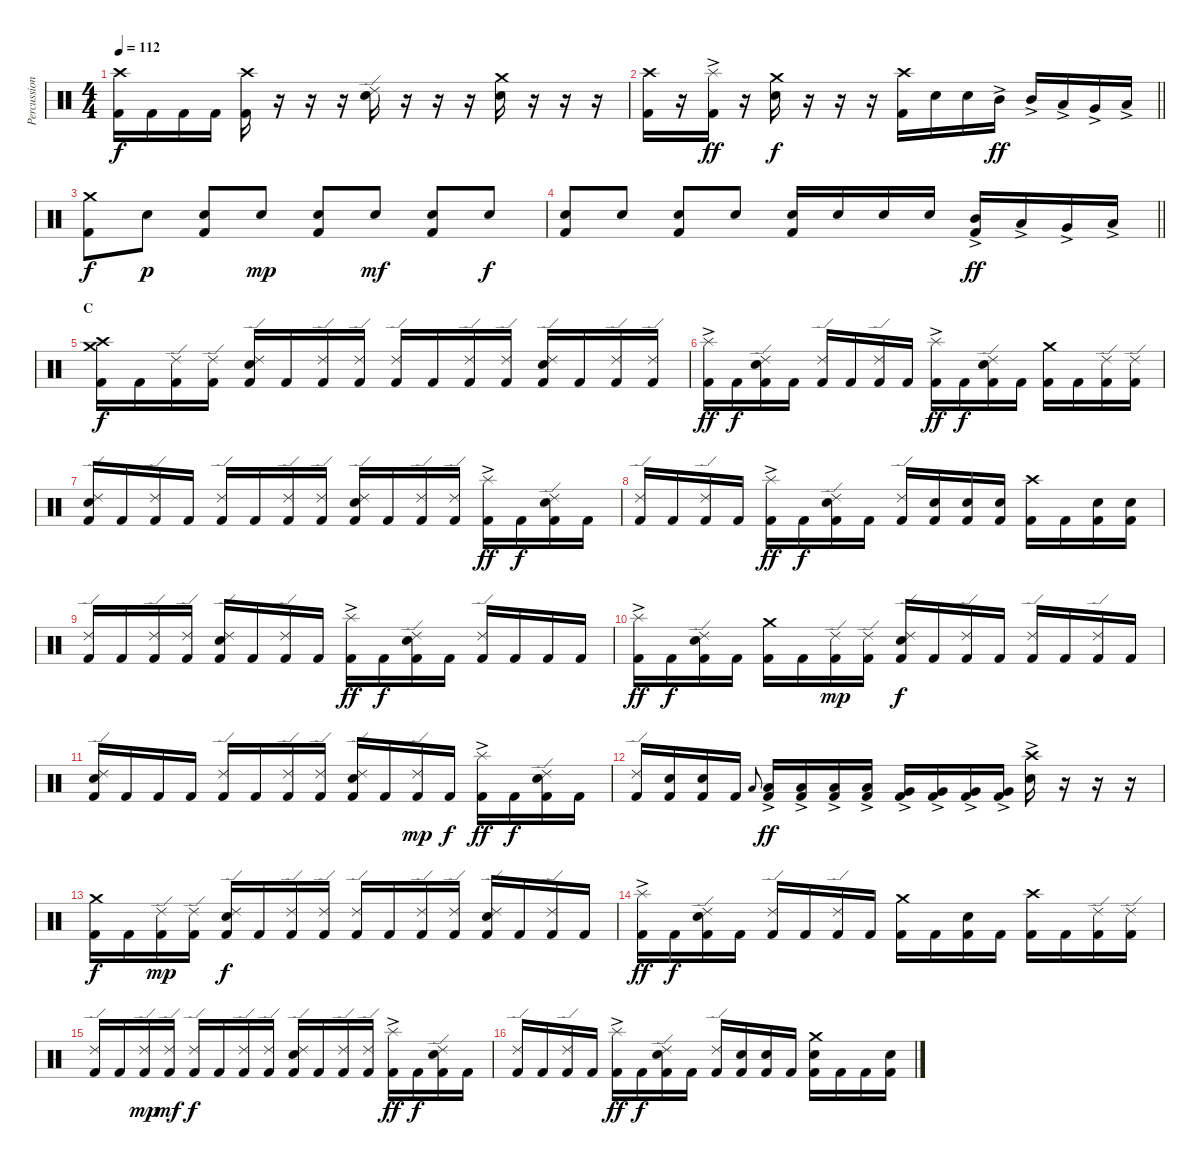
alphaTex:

\track ("Percussion" "Percussion") {instrument percussion}
\staff {score}
\articulation defaults
\ts (4 4)
\tempo 112
\clef neutral
\ks c
("Crash high (hit)" "Kick (hit) 2").16{dy f} "Kick (hit) 2".16 "Kick (hit) 2".16 "Kick (hit) 2".16 ("Crash high (hit)" "Kick (hit) 2").16 r.16 r.16 r.16 ("Ride (edge) 2" "Electric Snare (hit)").16 r.16 r.16 r.16 ("Crash medium (hit)" "Electric Snare (hit)").16 r.16 r.16 r.16 |
\barLineRight lightlight
("Crash high (hit)" "Kick (hit) 2").16 r.16 ("Splash (hit)"{ac} "Kick (hit) 2").16{dy ff} r.16 ("Crash medium (hit)" "Electric Snare (hit)").16{dy f} r.16 r.16 r.16 ("Crash high (hit)" "Kick (hit) 2").16 "Electric Snare (hit)".16 "Electric Snare (hit)".16 "Mid Tom (hit)"{ac}.16{dy ff} "Mid Tom (hit)"{ac}.16 "Low Tom (hit)"{ac}.16 "Very Low Tom (hit)"{ac}.16 "Low Floor Tom (hit)"{ac}.16 |
("Crash medium (hit)" "Kick (hit) 2").8{dy f} "Electric Snare (hit)".8{dy p} ("Electric Snare (hit)" "Kick (hit) 2").8 "Electric Snare (hit)".8{dy mp} ("Electric Snare (hit)" "Kick (hit) 2").8 "Electric Snare (hit)".8{dy mf} ("Electric Snare (hit)" "Kick (hit) 2").8 "Electric Snare (hit)".8{dy f} |
\barLineRight lightlight
("Electric Snare (hit)" "Kick (hit) 2").8 "Electric Snare (hit)".8 ("Electric Snare (hit)" "Kick (hit) 2").8 "Electric Snare (hit)".8 ("Electric Snare (hit)" "Kick (hit) 2").16 "Electric Snare (hit)".16 "Electric Snare (hit)".16 "Electric Snare (hit)".16 ("Mid Tom (hit)"{ac} "Kick (hit) 2").16{dy ff} "Low Tom (hit)"{ac}.16 "Very Low Tom (hit)"{ac}.16 "Low Floor Tom (hit)"{ac}.16 |
\section ("" "C")
("Crash medium (hit)" "Crash high (hit)" "Kick (hit) 2").16{dy f} "Kick (hit) 2".16 ("Ride (edge) 2" "Kick (hit) 2").16 ("Ride (edge) 2" "Kick (hit) 2").16 ("Ride (edge) 2" "Electric Snare (hit)" "Kick (hit) 2").16 "Kick (hit) 2".16 ("Ride (edge) 2" "Kick (hit) 2").16 ("Ride (edge) 2" "Kick (hit) 2").16 ("Ride (edge) 2" "Kick (hit) 2").16 "Kick (hit) 2".16 ("Ride (edge) 2" "Kick (hit) 2").16 ("Ride (edge) 2" "Kick (hit) 2").16 ("Ride (edge) 2" "Electric Snare (hit)" "Kick (hit) 2").16 "Kick (hit) 2".16 ("Ride (edge) 2" "Kick (hit) 2").16 ("Ride (edge) 2" "Kick (hit) 2").16 |
("Splash (hit)"{ac} "Kick (hit) 2").16{dy ff} "Kick (hit) 2".16{dy f} ("Ride (edge) 2" "Electric Snare (hit)" "Kick (hit) 2").16 "Kick (hit) 2".16 ("Ride (edge) 2" "Kick (hit) 2").16 "Kick (hit) 2".16 ("Ride (edge) 2" "Kick (hit) 2").16 "Kick (hit) 2".16 ("Splash (hit)"{ac} "Kick (hit) 2").16{dy ff} "Kick (hit) 2".16{dy f} ("Ride (edge) 2" "Electric Snare (hit)" "Kick (hit) 2").16 "Kick (hit) 2".16 ("Crash medium (hit)" "Kick (hit) 2").16 "Kick (hit) 2".16 ("Ride (edge) 2" "Kick (hit) 2").16 ("Ride (edge) 2" "Kick (hit) 2").16 |
("Ride (edge) 2" "Electric Snare (hit)" "Kick (hit) 2").16 "Kick (hit) 2".16 ("Ride (edge) 2" "Kick (hit) 2").16 "Kick (hit) 2".16 ("Ride (edge) 2" "Kick (hit) 2").16 "Kick (hit) 2".16 ("Ride (edge) 2" "Kick (hit) 2").16 ("Ride (edge) 2" "Kick (hit) 2").16 ("Ride (edge) 2" "Electric Snare (hit)" "Kick (hit) 2").16 "Kick (hit) 2".16 ("Ride (edge) 2" "Kick (hit) 2").16 ("Ride (edge) 2" "Kick (hit) 2").16 ("Splash (hit)"{ac} "Kick (hit) 2").16{dy ff} "Kick (hit) 2".16{dy f} ("Ride (edge) 2" "Electric Snare (hit)" "Kick (hit) 2").16 "Kick (hit) 2".16 |
("Ride (edge) 2" "Kick (hit) 2").16 "Kick (hit) 2".16 ("Ride (edge) 2" "Kick (hit) 2").16 "Kick (hit) 2".16 ("Splash (hit)"{ac} "Kick (hit) 2").16{dy ff} "Kick (hit) 2".16{dy f} ("Ride (edge) 2" "Electric Snare (hit)" "Kick (hit) 2").16 "Kick (hit) 2".16 ("Ride (edge) 2" "Kick (hit) 2").16 ("Electric Snare (hit)" "Kick (hit) 2").16 ("Electric Snare (hit)" "Kick (hit) 2").16 ("Electric Snare (hit)" "Kick (hit) 2").16 ("Crash high (hit)" "Kick (hit) 2").16 "Kick (hit) 2".16 ("Electric Snare (hit)" "Kick (hit) 2").16 ("Electric Snare (hit)" "Kick (hit) 2").16 |
("Ride (edge) 2" "Kick (hit) 2").16 "Kick (hit) 2".16 ("Ride (edge) 2" "Kick (hit) 2").16 ("Ride (edge) 2" "Kick (hit) 2").16 ("Ride (edge) 2" "Electric Snare (hit)" "Kick (hit) 2").16 "Kick (hit) 2".16 ("Ride (edge) 2" "Kick (hit) 2").16 "Kick (hit) 2".16 ("Splash (hit)"{ac} "Kick (hit) 2").16{dy ff} "Kick (hit) 2".16{dy f} ("Ride (edge) 2" "Electric Snare (hit)" "Kick (hit) 2").16 "Kick (hit) 2".16 ("Ride (edge) 2" "Kick (hit) 2").16 "Kick (hit) 2".16 "Kick (hit) 2".16 "Kick (hit) 2".16 |
("Splash (hit)"{ac} "Kick (hit) 2").16{dy ff} "Kick (hit) 2".16{dy f} ("Ride (edge) 2" "Electric Snare (hit)" "Kick (hit) 2").16 "Kick (hit) 2".16 ("Crash medium (hit)" "Kick (hit) 2").16 "Kick (hit) 2".16 ("Ride (edge) 2" "Kick (hit) 2").16{dy mp} ("Ride (edge) 2" "Kick (hit) 2").16 ("Ride (edge) 2" "Electric Snare (hit)" "Kick (hit) 2").16{dy f} "Kick (hit) 2".16 ("Ride (edge) 2" "Kick (hit) 2").16 "Kick (hit) 2".16 ("Ride (edge) 2" "Kick (hit) 2").16 "Kick (hit) 2".16 ("Ride (edge) 2" "Kick (hit) 2").16 "Kick (hit) 2".16 |
("Ride (edge) 2" "Electric Snare (hit)" "Kick (hit) 2").16 "Kick (hit) 2".16 "Kick (hit) 2".16 "Kick (hit) 2".16 ("Ride (edge) 2" "Kick (hit) 2").16 "Kick (hit) 2".16 ("Ride (edge) 2" "Kick (hit) 2").16 ("Ride (edge) 2" "Kick (hit) 2").16 ("Ride (edge) 2" "Electric Snare (hit)" "Kick (hit) 2").16 "Kick (hit) 2".16 ("Ride (edge) 2" "Kick (hit) 2").16{dy mp} "Kick (hit) 2".16{dy f} ("Splash (hit)"{ac} "Kick (hit) 2").16{dy ff} "Kick (hit) 2".16{dy f} ("Ride (edge) 2" "Electric Snare (hit)" "Kick (hit) 2").16 "Kick (hit) 2".16 |
("Ride (edge) 2" "Kick (hit) 2").16 ("Electric Snare (hit)" "Kick (hit) 2").16 ("Electric Snare (hit)" "Kick (hit) 2").16 "Kick (hit) 2".16 "Low Tom (hit)".8{gr onbeat} ("Low Tom (hit)"{ac} "Kick (hit) 2").16{dy ff} ("Low Tom (hit)"{ac} "Kick (hit) 2").16 ("Low Tom (hit)"{ac} "Kick (hit) 2").16 ("Low Tom (hit)"{ac} "Kick (hit) 2").16 ("Very Low Tom (hit)"{ac} "Kick (hit) 2").16 ("Very Low Tom (hit)"{ac} "Kick (hit) 2").16 ("Very Low Tom (hit)"{ac} "Kick (hit) 2").16 ("Very Low Tom (hit)"{ac} "Kick (hit) 2").16 ("Crash high (hit)" "Electric Snare (hit)"{ac}).16 r.16 r.16 r.16 |
("Crash medium (hit)" "Kick (hit) 2").16{dy f} "Kick (hit) 2".16 ("Ride (edge) 2" "Kick (hit) 2").16{dy mp} ("Ride (edge) 2" "Kick (hit) 2").16 ("Ride (edge) 2" "Electric Snare (hit)" "Kick (hit) 2").16{dy f} "Kick (hit) 2".16 ("Ride (edge) 2" "Kick (hit) 2").16 ("Ride (edge) 2" "Kick (hit) 2").16 ("Ride (edge) 2" "Kick (hit) 2").16 "Kick (hit) 2".16 ("Ride (edge) 2" "Kick (hit) 2").16 ("Ride (edge) 2" "Kick (hit) 2").16 ("Ride (edge) 2" "Electric Snare (hit)" "Kick (hit) 2").16 "Kick (hit) 2".16 ("Ride (edge) 2" "Kick (hit) 2").16 "Kick (hit) 2".16 |
("Splash (hit)"{ac} "Kick (hit) 2").16{dy ff} "Kick (hit) 2".16{dy f} ("Ride (edge) 2" "Electric Snare (hit)" "Kick (hit) 2").16 "Kick (hit) 2".16 ("Ride (edge) 2" "Kick (hit) 2").16 "Kick (hit) 2".16 ("Ride (edge) 2" "Kick (hit) 2").16 "Kick (hit) 2".16 ("Crash medium (hit)" "Kick (hit) 2").16 "Kick (hit) 2".16 ("Electric Snare (hit)" "Kick (hit) 2").16 "Kick (hit) 2".16 ("Crash high (hit)" "Kick (hit) 2").16 "Kick (hit) 2".16 ("Ride (edge) 2" "Kick (hit) 2").16 ("Ride (edge) 2" "Kick (hit) 2").16 |
("Ride (edge) 2" "Kick (hit) 2").16 "Kick (hit) 2".16 ("Ride (edge) 2" "Kick (hit) 2").16{dy mp} ("Ride (edge) 2" "Kick (hit) 2").16{dy mf} ("Ride (edge) 2" "Kick (hit) 2").16{dy f} "Kick (hit) 2".16 ("Ride (edge) 2" "Kick (hit) 2").16 ("Ride (edge) 2" "Kick (hit) 2").16 ("Ride (edge) 2" "Electric Snare (hit)" "Kick (hit) 2").16 "Kick (hit) 2".16 ("Ride (edge) 2" "Kick (hit) 2").16 ("Ride (edge) 2" "Kick (hit) 2").16 ("Splash (hit)"{ac} "Kick (hit) 2").16{dy ff} "Kick (hit) 2".16{dy f} ("Ride (edge) 2" "Electric Snare (hit)" "Kick (hit) 2").16 "Kick (hit) 2".16 |
("Ride (edge) 2" "Kick (hit) 2").16 "Kick (hit) 2".16 ("Ride (edge) 2" "Kick (hit) 2").16 "Kick (hit) 2".16 ("Splash (hit)"{ac} "Kick (hit) 2").16{dy ff} "Kick (hit) 2".16{dy f} ("Ride (edge) 2" "Electric Snare (hit)" "Kick (hit) 2").16 "Kick (hit) 2".16 ("Ride (edge) 2" "Kick (hit) 2").16 ("Electric Snare (hit)" "Kick (hit) 2").16 ("Electric Snare (hit)" "Kick (hit) 2").16 "Kick (hit) 2".16 ("Crash medium (hit)" "Electric Snare (hit)" "Kick (hit) 2").16 "Kick (hit) 2".16 "Kick (hit) 2".16 ("Electric Snare (hit)" "Kick (hit) 2").16
